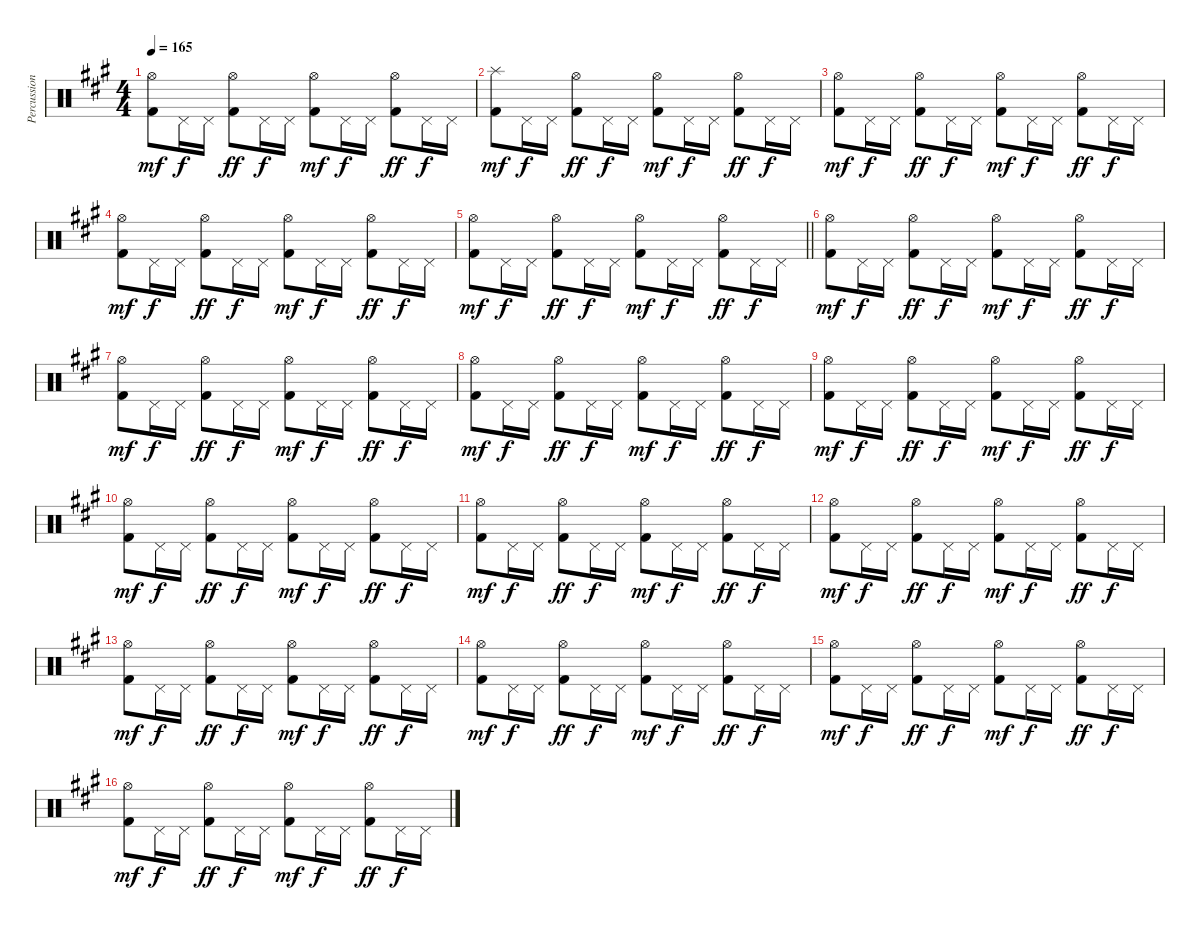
\track ("Percussion" "Percussion") {instrument percussion}
\staff {score}
\articulation defaults
\ts (4 4)
\tempo 165
\clef neutral
\ks a
("Hi-Hat (open)" "Kick (hit) 2").8{dy mf} "Pedal Hi-Hat (hit)".16{dy f} "Pedal Hi-Hat (hit)".16 ("Hi-Hat (open)" "Kick (hit) 2").8{dy ff} "Pedal Hi-Hat (hit)".16{dy f} "Pedal Hi-Hat (hit)".16 ("Hi-Hat (open)" "Kick (hit) 2").8{dy mf} "Pedal Hi-Hat (hit)".16{dy f} "Pedal Hi-Hat (hit)".16 ("Hi-Hat (open)" "Kick (hit) 2").8{dy ff} "Pedal Hi-Hat (hit)".16{dy f} "Pedal Hi-Hat (hit)".16 |
("Splash (hit)" "Kick (hit) 2").8{dy mf} "Pedal Hi-Hat (hit)".16{dy f} "Pedal Hi-Hat (hit)".16 ("Hi-Hat (open)" "Kick (hit) 2").8{dy ff} "Pedal Hi-Hat (hit)".16{dy f} "Pedal Hi-Hat (hit)".16 ("Hi-Hat (open)" "Kick (hit) 2").8{dy mf} "Pedal Hi-Hat (hit)".16{dy f} "Pedal Hi-Hat (hit)".16 ("Hi-Hat (open)" "Kick (hit) 2").8{dy ff} "Pedal Hi-Hat (hit)".16{dy f} "Pedal Hi-Hat (hit)".16 |
("Hi-Hat (open)" "Kick (hit) 2").8{dy mf} "Pedal Hi-Hat (hit)".16{dy f} "Pedal Hi-Hat (hit)".16 ("Hi-Hat (open)" "Kick (hit) 2").8{dy ff} "Pedal Hi-Hat (hit)".16{dy f} "Pedal Hi-Hat (hit)".16 ("Hi-Hat (open)" "Kick (hit) 2").8{dy mf} "Pedal Hi-Hat (hit)".16{dy f} "Pedal Hi-Hat (hit)".16 ("Hi-Hat (open)" "Kick (hit) 2").8{dy ff} "Pedal Hi-Hat (hit)".16{dy f} "Pedal Hi-Hat (hit)".16 |
("Hi-Hat (open)" "Kick (hit) 2").8{dy mf} "Pedal Hi-Hat (hit)".16{dy f} "Pedal Hi-Hat (hit)".16 ("Hi-Hat (open)" "Kick (hit) 2").8{dy ff} "Pedal Hi-Hat (hit)".16{dy f} "Pedal Hi-Hat (hit)".16 ("Hi-Hat (open)" "Kick (hit) 2").8{dy mf} "Pedal Hi-Hat (hit)".16{dy f} "Pedal Hi-Hat (hit)".16 ("Hi-Hat (open)" "Kick (hit) 2").8{dy ff} "Pedal Hi-Hat (hit)".16{dy f} "Pedal Hi-Hat (hit)".16 |
\barLineRight lightlight
("Hi-Hat (open)" "Kick (hit) 2").8{dy mf} "Pedal Hi-Hat (hit)".16{dy f} "Pedal Hi-Hat (hit)".16 ("Hi-Hat (open)" "Kick (hit) 2").8{dy ff} "Pedal Hi-Hat (hit)".16{dy f} "Pedal Hi-Hat (hit)".16 ("Hi-Hat (open)" "Kick (hit) 2").8{dy mf} "Pedal Hi-Hat (hit)".16{dy f} "Pedal Hi-Hat (hit)".16 ("Hi-Hat (open)" "Kick (hit) 2").8{dy ff} "Pedal Hi-Hat (hit)".16{dy f} "Pedal Hi-Hat (hit)".16 |
("Hi-Hat (open)" "Kick (hit) 2").8{dy mf} "Pedal Hi-Hat (hit)".16{dy f} "Pedal Hi-Hat (hit)".16 ("Hi-Hat (open)" "Kick (hit) 2").8{dy ff} "Pedal Hi-Hat (hit)".16{dy f} "Pedal Hi-Hat (hit)".16 ("Hi-Hat (open)" "Kick (hit) 2").8{dy mf} "Pedal Hi-Hat (hit)".16{dy f} "Pedal Hi-Hat (hit)".16 ("Hi-Hat (open)" "Kick (hit) 2").8{dy ff} "Pedal Hi-Hat (hit)".16{dy f} "Pedal Hi-Hat (hit)".16 |
("Hi-Hat (open)" "Kick (hit) 2").8{dy mf} "Pedal Hi-Hat (hit)".16{dy f} "Pedal Hi-Hat (hit)".16 ("Hi-Hat (open)" "Kick (hit) 2").8{dy ff} "Pedal Hi-Hat (hit)".16{dy f} "Pedal Hi-Hat (hit)".16 ("Hi-Hat (open)" "Kick (hit) 2").8{dy mf} "Pedal Hi-Hat (hit)".16{dy f} "Pedal Hi-Hat (hit)".16 ("Hi-Hat (open)" "Kick (hit) 2").8{dy ff} "Pedal Hi-Hat (hit)".16{dy f} "Pedal Hi-Hat (hit)".16 |
("Hi-Hat (open)" "Kick (hit) 2").8{dy mf} "Pedal Hi-Hat (hit)".16{dy f} "Pedal Hi-Hat (hit)".16 ("Hi-Hat (open)" "Kick (hit) 2").8{dy ff} "Pedal Hi-Hat (hit)".16{dy f} "Pedal Hi-Hat (hit)".16 ("Hi-Hat (open)" "Kick (hit) 2").8{dy mf} "Pedal Hi-Hat (hit)".16{dy f} "Pedal Hi-Hat (hit)".16 ("Hi-Hat (open)" "Kick (hit) 2").8{dy ff} "Pedal Hi-Hat (hit)".16{dy f} "Pedal Hi-Hat (hit)".16 |
("Hi-Hat (open)" "Kick (hit) 2").8{dy mf} "Pedal Hi-Hat (hit)".16{dy f} "Pedal Hi-Hat (hit)".16 ("Hi-Hat (open)" "Kick (hit) 2").8{dy ff} "Pedal Hi-Hat (hit)".16{dy f} "Pedal Hi-Hat (hit)".16 ("Hi-Hat (open)" "Kick (hit) 2").8{dy mf} "Pedal Hi-Hat (hit)".16{dy f} "Pedal Hi-Hat (hit)".16 ("Hi-Hat (open)" "Kick (hit) 2").8{dy ff} "Pedal Hi-Hat (hit)".16{dy f} "Pedal Hi-Hat (hit)".16 |
("Hi-Hat (open)" "Kick (hit) 2").8{dy mf} "Pedal Hi-Hat (hit)".16{dy f} "Pedal Hi-Hat (hit)".16 ("Hi-Hat (open)" "Kick (hit) 2").8{dy ff} "Pedal Hi-Hat (hit)".16{dy f} "Pedal Hi-Hat (hit)".16 ("Hi-Hat (open)" "Kick (hit) 2").8{dy mf} "Pedal Hi-Hat (hit)".16{dy f} "Pedal Hi-Hat (hit)".16 ("Hi-Hat (open)" "Kick (hit) 2").8{dy ff} "Pedal Hi-Hat (hit)".16{dy f} "Pedal Hi-Hat (hit)".16 |
("Hi-Hat (open)" "Kick (hit) 2").8{dy mf} "Pedal Hi-Hat (hit)".16{dy f} "Pedal Hi-Hat (hit)".16 ("Hi-Hat (open)" "Kick (hit) 2").8{dy ff} "Pedal Hi-Hat (hit)".16{dy f} "Pedal Hi-Hat (hit)".16 ("Hi-Hat (open)" "Kick (hit) 2").8{dy mf} "Pedal Hi-Hat (hit)".16{dy f} "Pedal Hi-Hat (hit)".16 ("Hi-Hat (open)" "Kick (hit) 2").8{dy ff} "Pedal Hi-Hat (hit)".16{dy f} "Pedal Hi-Hat (hit)".16 |
("Hi-Hat (open)" "Kick (hit) 2").8{dy mf} "Pedal Hi-Hat (hit)".16{dy f} "Pedal Hi-Hat (hit)".16 ("Hi-Hat (open)" "Kick (hit) 2").8{dy ff} "Pedal Hi-Hat (hit)".16{dy f} "Pedal Hi-Hat (hit)".16 ("Hi-Hat (open)" "Kick (hit) 2").8{dy mf} "Pedal Hi-Hat (hit)".16{dy f} "Pedal Hi-Hat (hit)".16 ("Hi-Hat (open)" "Kick (hit) 2").8{dy ff} "Pedal Hi-Hat (hit)".16{dy f} "Pedal Hi-Hat (hit)".16 |
("Hi-Hat (open)" "Kick (hit) 2").8{dy mf} "Pedal Hi-Hat (hit)".16{dy f} "Pedal Hi-Hat (hit)".16 ("Hi-Hat (open)" "Kick (hit) 2").8{dy ff} "Pedal Hi-Hat (hit)".16{dy f} "Pedal Hi-Hat (hit)".16 ("Hi-Hat (open)" "Kick (hit) 2").8{dy mf} "Pedal Hi-Hat (hit)".16{dy f} "Pedal Hi-Hat (hit)".16 ("Hi-Hat (open)" "Kick (hit) 2").8{dy ff} "Pedal Hi-Hat (hit)".16{dy f} "Pedal Hi-Hat (hit)".16 |
("Hi-Hat (open)" "Kick (hit) 2").8{dy mf} "Pedal Hi-Hat (hit)".16{dy f} "Pedal Hi-Hat (hit)".16 ("Hi-Hat (open)" "Kick (hit) 2").8{dy ff} "Pedal Hi-Hat (hit)".16{dy f} "Pedal Hi-Hat (hit)".16 ("Hi-Hat (open)" "Kick (hit) 2").8{dy mf} "Pedal Hi-Hat (hit)".16{dy f} "Pedal Hi-Hat (hit)".16 ("Hi-Hat (open)" "Kick (hit) 2").8{dy ff} "Pedal Hi-Hat (hit)".16{dy f} "Pedal Hi-Hat (hit)".16 |
("Hi-Hat (open)" "Kick (hit) 2").8{dy mf} "Pedal Hi-Hat (hit)".16{dy f} "Pedal Hi-Hat (hit)".16 ("Hi-Hat (open)" "Kick (hit) 2").8{dy ff} "Pedal Hi-Hat (hit)".16{dy f} "Pedal Hi-Hat (hit)".16 ("Hi-Hat (open)" "Kick (hit) 2").8{dy mf} "Pedal Hi-Hat (hit)".16{dy f} "Pedal Hi-Hat (hit)".16 ("Hi-Hat (open)" "Kick (hit) 2").8{dy ff} "Pedal Hi-Hat (hit)".16{dy f} "Pedal Hi-Hat (hit)".16 |
("Hi-Hat (open)" "Kick (hit) 2").8{dy mf} "Pedal Hi-Hat (hit)".16{dy f} "Pedal Hi-Hat (hit)".16 ("Hi-Hat (open)" "Kick (hit) 2").8{dy ff} "Pedal Hi-Hat (hit)".16{dy f} "Pedal Hi-Hat (hit)".16 ("Hi-Hat (open)" "Kick (hit) 2").8{dy mf} "Pedal Hi-Hat (hit)".16{dy f} "Pedal Hi-Hat (hit)".16 ("Hi-Hat (open)" "Kick (hit) 2").8{dy ff} "Pedal Hi-Hat (hit)".16{dy f} "Pedal Hi-Hat (hit)".16
